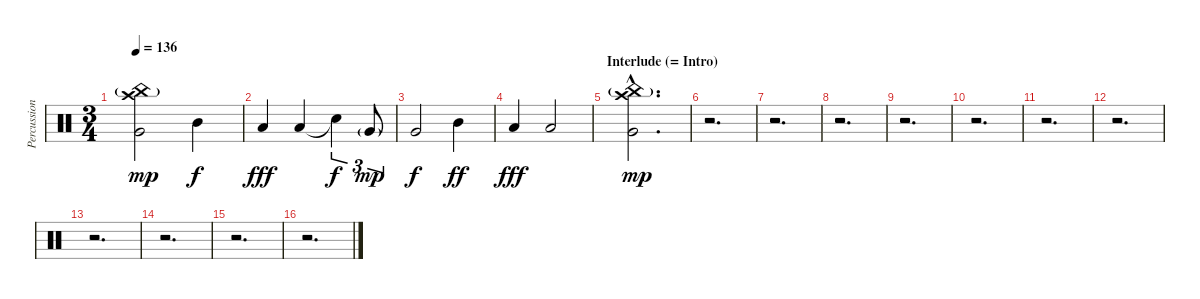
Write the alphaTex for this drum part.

\track ("Percussions / Stephen Van Haestregt" "Percussion") {instrument percussion}
\staff {score}
\articulation defaults
\ts (3 4)
\tempo 136
\clef neutral
\ks c
("Crash high (hit)" "China (hit)"{g} "Very Low Tom (hit)").2{dy mp} "Mid Tom (hit)".4{dy f} |
"Low Tom (hit)".4{dy fff} "Low Tom (hit)".4 "Snare (hit)"{t}.4{tu (3 2) dy f} "Very Low Tom (hit)"{g}.8{tu (3 2) dy mp} |
"Very Low Tom (hit)".2{dy f} "Mid Tom (hit)".4{dy ff} |
"Low Tom (hit)".4{dy fff} "Low Tom (hit)".2 |
\section ("" "Interlude (= Intro)")
("Crash high (hit)"{hac} "China (hit)"{g hac} "Very Low Tom (hit)"{hac}).2{d dy mp} |
r.2{d} |
r.2{d} |
r.2{d} |
r.2{d} |
r.2{d} |
r.2{d} |
r.2{d} |
r.2{d} |
r.2{d} |
r.2{d} |
r.2{d}
